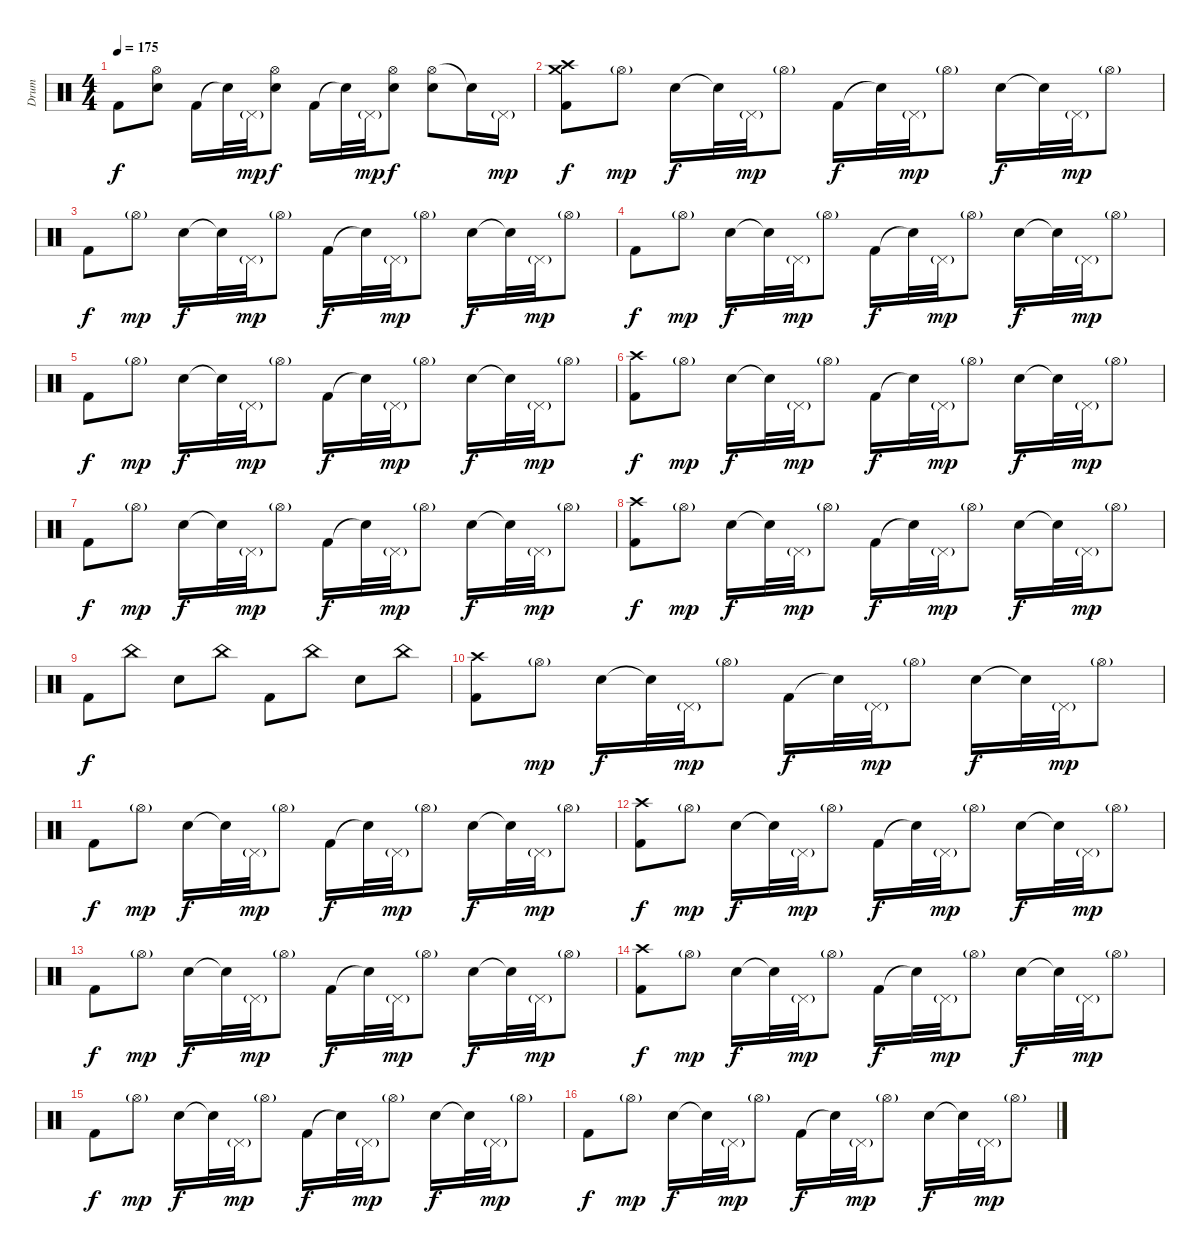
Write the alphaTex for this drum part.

\track ("Drum" "Drum") {instrument percussion}
\staff {score}
\articulation defaults
\ts (4 4)
\tempo 175
\clef neutral
\ks c "Kick (hit) 2".8{dy f}
("Hi-Hat (open)" "Electric Snare (hit)").8 "Kick (hit) 2".16 "Snare (hit)"{t}.32 "Pedal Hi-Hat (hit)"{g}.32{dy mp} ("Hi-Hat (open)" "Electric Snare (hit)").8{dy f} "Kick (hit) 2".16 "Snare (hit)"{t}.32 "Pedal Hi-Hat (hit)"{g}.32{dy mp} ("Hi-Hat (open)" "Electric Snare (hit)").8{dy f} ("Hi-Hat (open)" "Electric Snare (hit)").8 "Snare (hit)"{t}.16 "Pedal Hi-Hat (hit)"{g}.16{dy mp} |
\section ("" "")
("Kick (hit) 2" "Crash high (hit)" "Crash medium (hit)").8{dy f} "Hi-Hat (open)"{g}.8{dy mp} "Electric Snare (hit)".16{dy f} "Snare (hit)"{t}.32 "Pedal Hi-Hat (hit)"{g}.32{dy mp} "Hi-Hat (open)"{g}.8 "Kick (hit) 2".16{dy f} "Snare (hit)"{t}.32 "Pedal Hi-Hat (hit)"{g}.32{dy mp} "Hi-Hat (open)"{g}.8 "Electric Snare (hit)".16{dy f} "Snare (hit)"{t}.32 "Pedal Hi-Hat (hit)"{g}.32{dy mp} "Hi-Hat (open)"{g}.8 |
"Kick (hit) 2".8{dy f} "Hi-Hat (open)"{g}.8{dy mp} "Electric Snare (hit)".16{dy f} "Snare (hit)"{t}.32 "Pedal Hi-Hat (hit)"{g}.32{dy mp} "Hi-Hat (open)"{g}.8 "Kick (hit) 2".16{dy f} "Snare (hit)"{t}.32 "Pedal Hi-Hat (hit)"{g}.32{dy mp} "Hi-Hat (open)"{g}.8 "Electric Snare (hit)".16{dy f} "Snare (hit)"{t}.32 "Pedal Hi-Hat (hit)"{g}.32{dy mp} "Hi-Hat (open)"{g}.8 |
"Kick (hit) 2".8{dy f} "Hi-Hat (open)"{g}.8{dy mp} "Electric Snare (hit)".16{dy f} "Snare (hit)"{t}.32 "Pedal Hi-Hat (hit)"{g}.32{dy mp} "Hi-Hat (open)"{g}.8 "Kick (hit) 2".16{dy f} "Snare (hit)"{t}.32 "Pedal Hi-Hat (hit)"{g}.32{dy mp} "Hi-Hat (open)"{g}.8 "Electric Snare (hit)".16{dy f} "Snare (hit)"{t}.32 "Pedal Hi-Hat (hit)"{g}.32{dy mp} "Hi-Hat (open)"{g}.8 |
"Kick (hit) 2".8{dy f} "Hi-Hat (open)"{g}.8{dy mp} "Electric Snare (hit)".16{dy f} "Snare (hit)"{t}.32 "Pedal Hi-Hat (hit)"{g}.32{dy mp} "Hi-Hat (open)"{g}.8 "Kick (hit) 2".16{dy f} "Snare (hit)"{t}.32 "Pedal Hi-Hat (hit)"{g}.32{dy mp} "Hi-Hat (open)"{g}.8 "Electric Snare (hit)".16{dy f} "Snare (hit)"{t}.32 "Pedal Hi-Hat (hit)"{g}.32{dy mp} "Hi-Hat (open)"{g}.8 |
("Kick (hit) 2" "Crash high (hit)").8{dy f} "Hi-Hat (open)"{g}.8{dy mp} "Electric Snare (hit)".16{dy f} "Snare (hit)"{t}.32 "Pedal Hi-Hat (hit)"{g}.32{dy mp} "Hi-Hat (open)"{g}.8 "Kick (hit) 2".16{dy f} "Snare (hit)"{t}.32 "Pedal Hi-Hat (hit)"{g}.32{dy mp} "Hi-Hat (open)"{g}.8 "Electric Snare (hit)".16{dy f} "Snare (hit)"{t}.32 "Pedal Hi-Hat (hit)"{g}.32{dy mp} "Hi-Hat (open)"{g}.8 |
"Kick (hit) 2".8{dy f} "Hi-Hat (open)"{g}.8{dy mp} "Electric Snare (hit)".16{dy f} "Snare (hit)"{t}.32 "Pedal Hi-Hat (hit)"{g}.32{dy mp} "Hi-Hat (open)"{g}.8 "Kick (hit) 2".16{dy f} "Snare (hit)"{t}.32 "Pedal Hi-Hat (hit)"{g}.32{dy mp} "Hi-Hat (open)"{g}.8 "Electric Snare (hit)".16{dy f} "Snare (hit)"{t}.32 "Pedal Hi-Hat (hit)"{g}.32{dy mp} "Hi-Hat (open)"{g}.8 |
("Kick (hit) 2" "Crash high (hit)").8{dy f} "Hi-Hat (open)"{g}.8{dy mp} "Electric Snare (hit)".16{dy f} "Snare (hit)"{t}.32 "Pedal Hi-Hat (hit)"{g}.32{dy mp} "Hi-Hat (open)"{g}.8 "Kick (hit) 2".16{dy f} "Snare (hit)"{t}.32 "Pedal Hi-Hat (hit)"{g}.32{dy mp} "Hi-Hat (open)"{g}.8 "Electric Snare (hit)".16{dy f} "Snare (hit)"{t}.32 "Pedal Hi-Hat (hit)"{g}.32{dy mp} "Hi-Hat (open)"{g}.8 |
"Kick (hit) 2".8{dy f} "China (hit)".8 "Electric Snare (hit)".8 "China (hit)".8 "Kick (hit) 2".8 "China (hit)".8 "Electric Snare (hit)".8 "China (hit)".8 |
("Kick (hit) 2" "Crash high (hit)").8 "Hi-Hat (open)"{g}.8{dy mp} "Electric Snare (hit)".16{dy f} "Snare (hit)"{t}.32 "Pedal Hi-Hat (hit)"{g}.32{dy mp} "Hi-Hat (open)"{g}.8 "Kick (hit) 2".16{dy f} "Snare (hit)"{t}.32 "Pedal Hi-Hat (hit)"{g}.32{dy mp} "Hi-Hat (open)"{g}.8 "Electric Snare (hit)".16{dy f} "Snare (hit)"{t}.32 "Pedal Hi-Hat (hit)"{g}.32{dy mp} "Hi-Hat (open)"{g}.8 |
"Kick (hit) 2".8{dy f} "Hi-Hat (open)"{g}.8{dy mp} "Electric Snare (hit)".16{dy f} "Snare (hit)"{t}.32 "Pedal Hi-Hat (hit)"{g}.32{dy mp} "Hi-Hat (open)"{g}.8 "Kick (hit) 2".16{dy f} "Snare (hit)"{t}.32 "Pedal Hi-Hat (hit)"{g}.32{dy mp} "Hi-Hat (open)"{g}.8 "Electric Snare (hit)".16{dy f} "Snare (hit)"{t}.32 "Pedal Hi-Hat (hit)"{g}.32{dy mp} "Hi-Hat (open)"{g}.8 |
("Kick (hit) 2" "Crash high (hit)").8{dy f} "Hi-Hat (open)"{g}.8{dy mp} "Electric Snare (hit)".16{dy f} "Snare (hit)"{t}.32 "Pedal Hi-Hat (hit)"{g}.32{dy mp} "Hi-Hat (open)"{g}.8 "Kick (hit) 2".16{dy f} "Snare (hit)"{t}.32 "Pedal Hi-Hat (hit)"{g}.32{dy mp} "Hi-Hat (open)"{g}.8 "Electric Snare (hit)".16{dy f} "Snare (hit)"{t}.32 "Pedal Hi-Hat (hit)"{g}.32{dy mp} "Hi-Hat (open)"{g}.8 |
"Kick (hit) 2".8{dy f} "Hi-Hat (open)"{g}.8{dy mp} "Electric Snare (hit)".16{dy f} "Snare (hit)"{t}.32 "Pedal Hi-Hat (hit)"{g}.32{dy mp} "Hi-Hat (open)"{g}.8 "Kick (hit) 2".16{dy f} "Snare (hit)"{t}.32 "Pedal Hi-Hat (hit)"{g}.32{dy mp} "Hi-Hat (open)"{g}.8 "Electric Snare (hit)".16{dy f} "Snare (hit)"{t}.32 "Pedal Hi-Hat (hit)"{g}.32{dy mp} "Hi-Hat (open)"{g}.8 |
("Kick (hit) 2" "Crash high (hit)").8{dy f} "Hi-Hat (open)"{g}.8{dy mp} "Electric Snare (hit)".16{dy f} "Snare (hit)"{t}.32 "Pedal Hi-Hat (hit)"{g}.32{dy mp} "Hi-Hat (open)"{g}.8 "Kick (hit) 2".16{dy f} "Snare (hit)"{t}.32 "Pedal Hi-Hat (hit)"{g}.32{dy mp} "Hi-Hat (open)"{g}.8 "Electric Snare (hit)".16{dy f} "Snare (hit)"{t}.32 "Pedal Hi-Hat (hit)"{g}.32{dy mp} "Hi-Hat (open)"{g}.8 |
"Kick (hit) 2".8{dy f} "Hi-Hat (open)"{g}.8{dy mp} "Electric Snare (hit)".16{dy f} "Snare (hit)"{t}.32 "Pedal Hi-Hat (hit)"{g}.32{dy mp} "Hi-Hat (open)"{g}.8 "Kick (hit) 2".16{dy f} "Snare (hit)"{t}.32 "Pedal Hi-Hat (hit)"{g}.32{dy mp} "Hi-Hat (open)"{g}.8 "Electric Snare (hit)".16{dy f} "Snare (hit)"{t}.32 "Pedal Hi-Hat (hit)"{g}.32{dy mp} "Hi-Hat (open)"{g}.8 |
"Kick (hit) 2".8{dy f} "Hi-Hat (open)"{g}.8{dy mp} "Electric Snare (hit)".16{dy f} "Snare (hit)"{t}.32 "Pedal Hi-Hat (hit)"{g}.32{dy mp} "Hi-Hat (open)"{g}.8 "Kick (hit) 2".16{dy f} "Snare (hit)"{t}.32 "Pedal Hi-Hat (hit)"{g}.32{dy mp} "Hi-Hat (open)"{g}.8 "Electric Snare (hit)".16{dy f} "Snare (hit)"{t}.32 "Pedal Hi-Hat (hit)"{g}.32{dy mp} "Hi-Hat (open)"{g}.8
